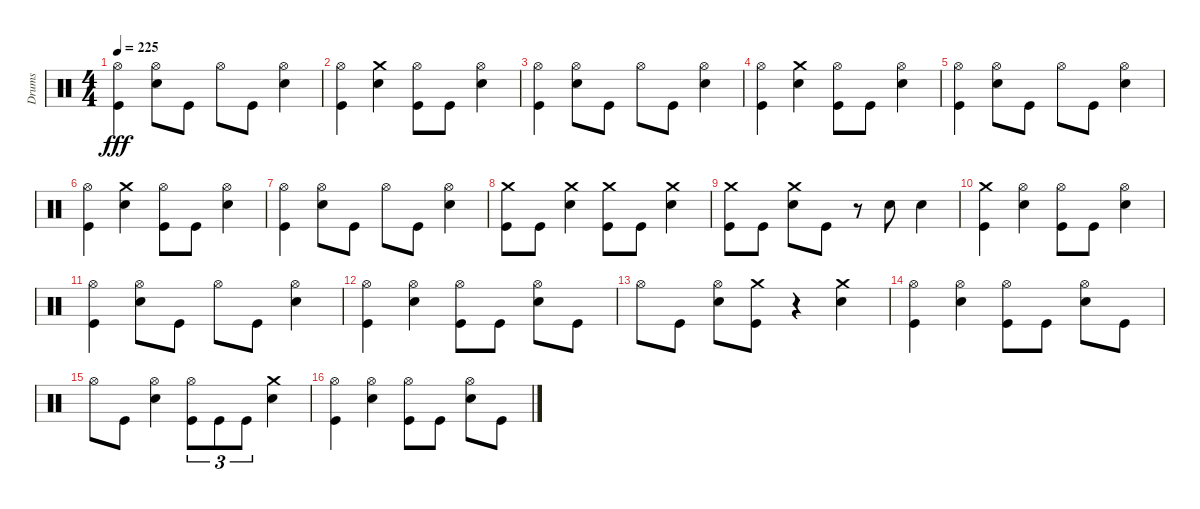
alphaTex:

\track ("Drums" "Drums") {instrument percussion}
\staff {score}
\articulation defaults
\ts (4 4)
\tempo 225
\clef neutral
\ks c
("Kick (hit)" "Hi-Hat (open)").4{dy fff} ("Hi-Hat (open)" "Snare (hit) 2").8 "Kick (hit)".8 "Hi-Hat (open)".8 "Kick (hit)".8 ("Snare (hit) 2" "Hi-Hat (open)").4 |
("Kick (hit)" "Hi-Hat (open)").4 ("Snare (hit) 2" "Crash medium (hit)").4 ("Kick (hit)" "Hi-Hat (open)").8 "Kick (hit)".8 ("Snare (hit) 2" "Hi-Hat (open)").4 |
("Kick (hit)" "Hi-Hat (open)").4 ("Snare (hit) 2" "Hi-Hat (open)").8 "Kick (hit)".8 "Hi-Hat (open)".8 "Kick (hit)".8 ("Snare (hit) 2" "Hi-Hat (open)").4 |
("Kick (hit)" "Hi-Hat (open)").4 ("Crash medium (hit)" "Snare (hit) 2").4 ("Kick (hit)" "Hi-Hat (open)").8 "Kick (hit)".8 ("Snare (hit) 2" "Hi-Hat (open)").4 |
("Kick (hit)" "Hi-Hat (open)").4 ("Snare (hit) 2" "Hi-Hat (open)").8 "Kick (hit)".8 "Hi-Hat (open)".8 "Kick (hit)".8 ("Snare (hit) 2" "Hi-Hat (open)").4 |
("Kick (hit)" "Hi-Hat (open)").4 ("Snare (hit) 2" "Crash medium (hit)").4 ("Kick (hit)" "Hi-Hat (open)").8 "Kick (hit)".8 ("Snare (hit) 2" "Hi-Hat (open)").4 |
("Kick (hit)" "Hi-Hat (open)").4 ("Snare (hit) 2" "Hi-Hat (open)").8 "Kick (hit)".8 "Hi-Hat (open)".8 "Kick (hit)".8 ("Snare (hit) 2" "Hi-Hat (open)").4 |
("Kick (hit)" "Crash medium (hit)").8 "Kick (hit)".8 ("Snare (hit) 2" "Crash medium (hit)").4 ("Kick (hit)" "Crash medium (hit)").8 "Kick (hit)".8 ("Snare (hit) 2" "Crash medium (hit)").4 |
("Kick (hit)" "Crash medium (hit)").8 "Kick (hit)".8 ("Snare (hit) 2" "Crash medium (hit)").8 "Kick (hit)".8 r.8 "Snare (hit) 2".8 "Snare (hit) 2".4 |
("Crash medium (hit)" "Kick (hit)").4 ("Snare (hit) 2" "Hi-Hat (open)").4 ("Kick (hit)" "Hi-Hat (open)").8 "Kick (hit)".8 ("Snare (hit) 2" "Hi-Hat (open)").4 |
("Kick (hit)" "Hi-Hat (open)").4 ("Snare (hit) 2" "Hi-Hat (open)").8 "Kick (hit)".8 "Hi-Hat (open)".8 "Kick (hit)".8 ("Snare (hit) 2" "Hi-Hat (open)").4 |
("Kick (hit)" "Hi-Hat (open)").4 ("Snare (hit) 2" "Hi-Hat (open)").4 ("Kick (hit)" "Hi-Hat (open)").8 "Kick (hit)".8 ("Snare (hit) 2" "Hi-Hat (open)").8 "Kick (hit)".8 |
"Hi-Hat (open)".8 "Kick (hit)".8 ("Snare (hit) 2" "Hi-Hat (open)").8 ("Crash medium (hit)" "Kick (hit)").8 r.4 ("Snare (hit) 2" "Crash medium (hit)").4 |
("Kick (hit)" "Hi-Hat (open)").4 ("Snare (hit) 2" "Hi-Hat (open)").4 ("Kick (hit)" "Hi-Hat (open)").8 "Kick (hit)".8 ("Snare (hit) 2" "Hi-Hat (open)").8 "Kick (hit)".8 |
"Hi-Hat (open)".8 "Kick (hit)".8 ("Snare (hit) 2" "Hi-Hat (open)").4 ("Kick (hit)" "Hi-Hat (open)").8{tu (3 2)} "Kick (hit)".8{tu (3 2)} "Kick (hit)".8{tu (3 2)} ("Crash medium (hit)" "Snare (hit) 2").4 |
("Kick (hit)" "Hi-Hat (open)").4 ("Snare (hit) 2" "Hi-Hat (open)").4 ("Kick (hit)" "Hi-Hat (open)").8 "Kick (hit)".8 ("Snare (hit) 2" "Hi-Hat (open)").8 "Kick (hit)".8
